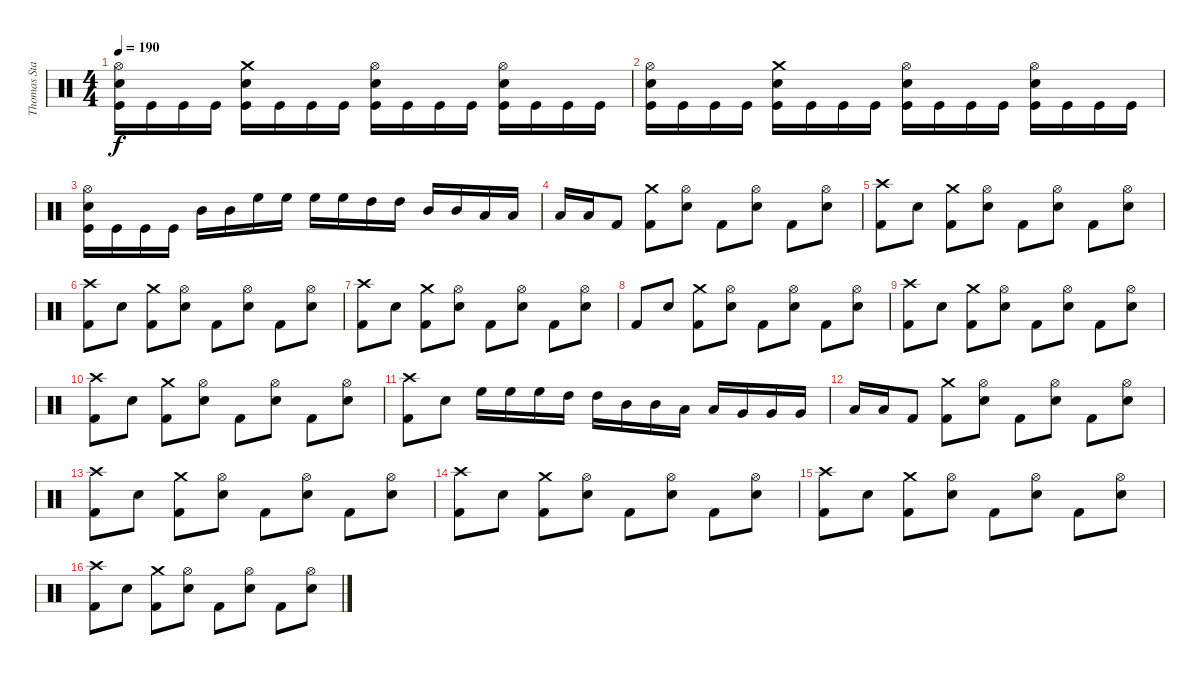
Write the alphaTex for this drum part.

\track ("Thomas Stauch" "Thomas Sta") {instrument percussion}
\staff {score}
\articulation defaults
\ts (4 4)
\tempo 190
\clef neutral
\ks c
("Hi-Hat (open)" "Electric Snare (hit)" "Kick (hit)").16{dy f} "Kick (hit)".16 "Kick (hit)".16 "Kick (hit)".16 ("Crash medium (hit)" "Electric Snare (hit)" "Kick (hit)").16 "Kick (hit)".16 "Kick (hit)".16 "Kick (hit)".16 ("Hi-Hat (open)" "Electric Snare (hit)" "Kick (hit)").16 "Kick (hit)".16 "Kick (hit)".16 "Kick (hit)".16 ("Hi-Hat (open)" "Electric Snare (hit)" "Kick (hit)").16 "Kick (hit)".16 "Kick (hit)".16 "Kick (hit)".16 |
("Hi-Hat (open)" "Electric Snare (hit)" "Kick (hit)").16 "Kick (hit)".16 "Kick (hit)".16 "Kick (hit)".16 ("Crash medium (hit)" "Electric Snare (hit)" "Kick (hit)").16 "Kick (hit)".16 "Kick (hit)".16 "Kick (hit)".16 ("Hi-Hat (open)" "Electric Snare (hit)" "Kick (hit)").16 "Kick (hit)".16 "Kick (hit)".16 "Kick (hit)".16 ("Hi-Hat (open)" "Electric Snare (hit)" "Kick (hit)").16 "Kick (hit)".16 "Kick (hit)".16 "Kick (hit)".16 |
("Hi-Hat (open)" "Electric Snare (hit)" "Kick (hit)").16 "Kick (hit)".16 "Kick (hit)".16 "Kick (hit)".16 "Mid Tom (hit)".16 "Mid Tom (hit)".16 "High Floor Tom (hit)".16 "High Floor Tom (hit)".16 "High Floor Tom (hit)".16 "High Floor Tom (hit)".16 "High Tom (hit)".16 "High Tom (hit)".16 "Mid Tom (hit)".16 "Mid Tom (hit)".16 "Low Tom (hit)".16 "Low Tom (hit)".16 |
"Low Tom (hit)".16 "Low Tom (hit)".16 "Kick (hit) 2".8 ("Crash medium (hit)" "Kick (hit) 2").8 ("Hi-Hat (open)" "Electric Snare (hit)").8 "Kick (hit) 2".8 ("Hi-Hat (open)" "Electric Snare (hit)").8 "Kick (hit) 2".8 ("Hi-Hat (open)" "Electric Snare (hit)").8 |
("Crash high (hit)" "Kick (hit) 2").8 "Electric Snare (hit)".8 ("Crash medium (hit)" "Kick (hit) 2").8 ("Hi-Hat (open)" "Electric Snare (hit)").8 "Kick (hit) 2".8 ("Hi-Hat (open)" "Electric Snare (hit)").8 "Kick (hit) 2".8 ("Hi-Hat (open)" "Electric Snare (hit)").8 |
("Crash high (hit)" "Kick (hit) 2").8 "Electric Snare (hit)".8 ("Crash medium (hit)" "Kick (hit) 2").8 ("Hi-Hat (open)" "Electric Snare (hit)").8 "Kick (hit) 2".8 ("Hi-Hat (open)" "Electric Snare (hit)").8 "Kick (hit) 2".8 ("Hi-Hat (open)" "Electric Snare (hit)").8 |
("Crash high (hit)" "Kick (hit) 2").8 "Electric Snare (hit)".8 ("Crash medium (hit)" "Kick (hit) 2").8 ("Hi-Hat (open)" "Electric Snare (hit)").8 "Kick (hit) 2".8 ("Hi-Hat (open)" "Electric Snare (hit)").8 "Kick (hit) 2".8 ("Hi-Hat (open)" "Electric Snare (hit)").8 |
"Kick (hit) 2".8 "Electric Snare (hit)".8 ("Crash medium (hit)" "Kick (hit) 2").8 ("Hi-Hat (open)" "Electric Snare (hit)").8 "Kick (hit) 2".8 ("Hi-Hat (open)" "Electric Snare (hit)").8 "Kick (hit) 2".8 ("Hi-Hat (open)" "Electric Snare (hit)").8 |
("Crash high (hit)" "Kick (hit) 2").8 "Electric Snare (hit)".8 ("Crash medium (hit)" "Kick (hit) 2").8 ("Hi-Hat (open)" "Electric Snare (hit)").8 "Kick (hit) 2".8 ("Hi-Hat (open)" "Electric Snare (hit)").8 "Kick (hit) 2".8 ("Hi-Hat (open)" "Electric Snare (hit)").8 |
("Crash high (hit)" "Kick (hit) 2").8 "Electric Snare (hit)".8 ("Crash medium (hit)" "Kick (hit) 2").8 ("Hi-Hat (open)" "Electric Snare (hit)").8 "Kick (hit) 2".8 ("Hi-Hat (open)" "Electric Snare (hit)").8 "Kick (hit) 2".8 ("Hi-Hat (open)" "Electric Snare (hit)").8 |
("Crash high (hit)" "Kick (hit) 2").8 "Electric Snare (hit)".8 "High Floor Tom (hit)".16 "High Floor Tom (hit)".16 "High Floor Tom (hit)".16 "High Tom (hit)".16 "High Tom (hit)".16 "Mid Tom (hit)".16 "Mid Tom (hit)".16 "Low Tom (hit)".16 "Low Tom (hit)".16 "Very Low Tom (hit)".16 "Very Low Tom (hit)".16 "Very Low Tom (hit)".16 |
"Low Tom (hit)".16 "Low Tom (hit)".16 "Kick (hit) 2".8 ("Crash medium (hit)" "Kick (hit) 2").8 ("Hi-Hat (open)" "Electric Snare (hit)").8 "Kick (hit) 2".8 ("Hi-Hat (open)" "Electric Snare (hit)").8 "Kick (hit) 2".8 ("Hi-Hat (open)" "Electric Snare (hit)").8 |
("Crash high (hit)" "Kick (hit) 2").8 "Electric Snare (hit)".8 ("Crash medium (hit)" "Kick (hit) 2").8 ("Hi-Hat (open)" "Electric Snare (hit)").8 "Kick (hit) 2".8 ("Hi-Hat (open)" "Electric Snare (hit)").8 "Kick (hit) 2".8 ("Hi-Hat (open)" "Electric Snare (hit)").8 |
("Crash high (hit)" "Kick (hit) 2").8 "Electric Snare (hit)".8 ("Crash medium (hit)" "Kick (hit) 2").8 ("Hi-Hat (open)" "Electric Snare (hit)").8 "Kick (hit) 2".8 ("Hi-Hat (open)" "Electric Snare (hit)").8 "Kick (hit) 2".8 ("Hi-Hat (open)" "Electric Snare (hit)").8 |
("Crash high (hit)" "Kick (hit) 2").8 "Electric Snare (hit)".8 ("Crash medium (hit)" "Kick (hit) 2").8 ("Hi-Hat (open)" "Electric Snare (hit)").8 "Kick (hit) 2".8 ("Hi-Hat (open)" "Electric Snare (hit)").8 "Kick (hit) 2".8 ("Hi-Hat (open)" "Electric Snare (hit)").8 |
("Crash high (hit)" "Kick (hit) 2").8 "Electric Snare (hit)".8 ("Crash medium (hit)" "Kick (hit) 2").8 ("Hi-Hat (open)" "Electric Snare (hit)").8 "Kick (hit) 2".8 ("Hi-Hat (open)" "Electric Snare (hit)").8 "Kick (hit) 2".8 ("Hi-Hat (open)" "Electric Snare (hit)").8
